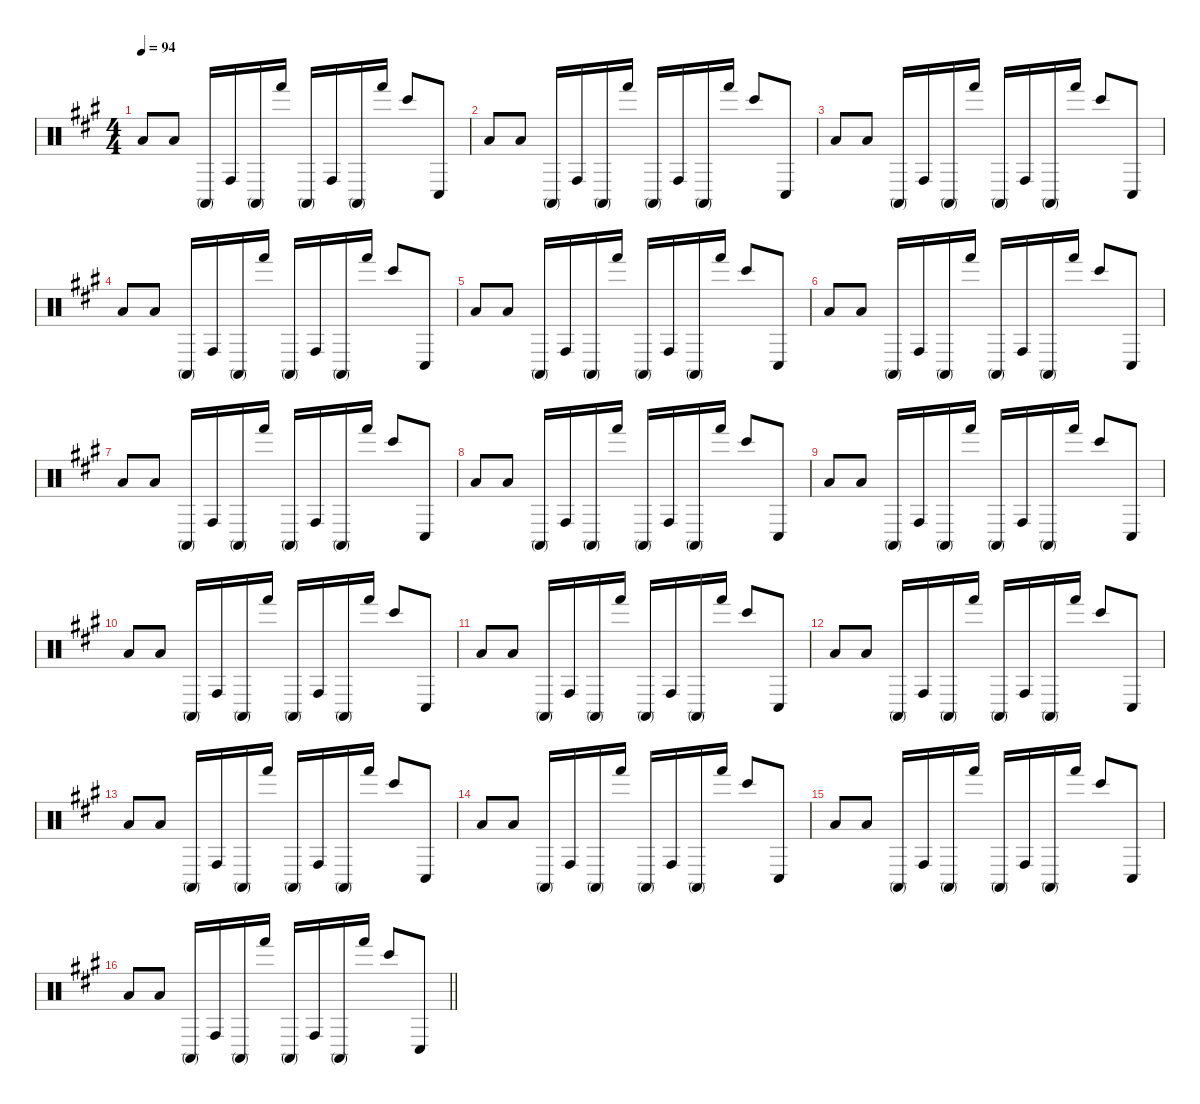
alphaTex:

\defaultSystemsLayout 4
\hideDynamics
\bracketExtendMode nobrackets
\singleTrackTrackNamePolicy hidden
\multiTrackTrackNamePolicy hidden
\firstSystemTrackNameMode fullname
\firstSystemTrackNameOrientation horizontal
\otherSystemsTrackNameOrientation horizontal
\track ("Bongos" "drm.") {defaultSystemsLayout 4 instrument percussion}
\staff {score}
\articulation defaults
\ts (4 4)
\tempo 94
\clef neutral
\ks a "Low Floor Tom (hit)"{acc forcenatural}.8{dy f beam Up} "Low Floor Tom (hit)"{acc forcenatural}.8{beam Up} "Conga high (mute)"{acc forcenatural}.16{beam Up} "Conga high (hit)"{acc forcenatural}.16{beam Up} "Conga high (mute)"{acc forcenatural}.16{beam Up} "Hand (hit)"{acc forcenatural}.16{beam Up} "Conga high (mute)"{acc forcenatural}.16{beam Up} "Conga high (hit)"{acc forcenatural}.16{beam Up} "Conga high (mute)"{acc forcenatural}.16{beam Up} "Hand (hit)"{acc forcenatural}.16{beam Up} "Bongo High (hit)"{acc forcenatural}.8{beam Up} "Conga low (hit)"{acc forcenatural}.8{beam Up}
|
"Low Floor Tom (hit)"{acc forcenatural}.8{beam Up} "Low Floor Tom (hit)"{acc forcenatural}.8{beam Up} "Conga high (mute)"{acc forcenatural}.16{beam Up} "Conga high (hit)"{acc forcenatural}.16{beam Up} "Conga high (mute)"{acc forcenatural}.16{beam Up} "Hand (hit)"{acc forcenatural}.16{beam Up} "Conga high (mute)"{acc forcenatural}.16{beam Up} "Conga high (hit)"{acc forcenatural}.16{beam Up} "Conga high (mute)"{acc forcenatural}.16{beam Up} "Hand (hit)"{acc forcenatural}.16{beam Up} "Bongo High (hit)"{acc forcenatural}.8{beam Up} "Conga low (hit)"{acc forcenatural}.8{beam Up} |
"Low Floor Tom (hit)"{acc forcenatural}.8{beam Up} "Low Floor Tom (hit)"{acc forcenatural}.8{beam Up} "Conga high (mute)"{acc forcenatural}.16{beam Up} "Conga high (hit)"{acc forcenatural}.16{beam Up} "Conga high (mute)"{acc forcenatural}.16{beam Up} "Hand (hit)"{acc forcenatural}.16{beam Up} "Conga high (mute)"{acc forcenatural}.16{beam Up} "Conga high (hit)"{acc forcenatural}.16{beam Up} "Conga high (mute)"{acc forcenatural}.16{beam Up} "Hand (hit)"{acc forcenatural}.16{beam Up} "Bongo High (hit)"{acc forcenatural}.8{beam Up} "Conga low (hit)"{acc forcenatural}.8{beam Up} |
"Low Floor Tom (hit)"{acc forcenatural}.8{beam Up} "Low Floor Tom (hit)"{acc forcenatural}.8{beam Up} "Conga high (mute)"{acc forcenatural}.16{beam Up} "Conga high (hit)"{acc forcenatural}.16{beam Up} "Conga high (mute)"{acc forcenatural}.16{beam Up} "Hand (hit)"{acc forcenatural}.16{beam Up} "Conga high (mute)"{acc forcenatural}.16{beam Up} "Conga high (hit)"{acc forcenatural}.16{beam Up} "Conga high (mute)"{acc forcenatural}.16{beam Up} "Hand (hit)"{acc forcenatural}.16{beam Up} "Bongo High (hit)"{acc forcenatural}.8{beam Up} "Conga low (hit)"{acc forcenatural}.8{beam Up} |
"Low Floor Tom (hit)"{acc forcenatural}.8{beam Up} "Low Floor Tom (hit)"{acc forcenatural}.8{beam Up} "Conga high (mute)"{acc forcenatural}.16{beam Up} "Conga high (hit)"{acc forcenatural}.16{beam Up} "Conga high (mute)"{acc forcenatural}.16{beam Up} "Hand (hit)"{acc forcenatural}.16{beam Up} "Conga high (mute)"{acc forcenatural}.16{beam Up} "Conga high (hit)"{acc forcenatural}.16{beam Up} "Conga high (mute)"{acc forcenatural}.16{beam Up} "Hand (hit)"{acc forcenatural}.16{beam Up} "Bongo High (hit)"{acc forcenatural}.8{beam Up} "Conga low (hit)"{acc forcenatural}.8{beam Up} |
"Low Floor Tom (hit)"{acc forcenatural}.8{beam Up} "Low Floor Tom (hit)"{acc forcenatural}.8{beam Up} "Conga high (mute)"{acc forcenatural}.16{beam Up} "Conga high (hit)"{acc forcenatural}.16{beam Up} "Conga high (mute)"{acc forcenatural}.16{beam Up} "Hand (hit)"{acc forcenatural}.16{beam Up} "Conga high (mute)"{acc forcenatural}.16{beam Up} "Conga high (hit)"{acc forcenatural}.16{beam Up} "Conga high (mute)"{acc forcenatural}.16{beam Up} "Hand (hit)"{acc forcenatural}.16{beam Up} "Bongo High (hit)"{acc forcenatural}.8{beam Up} "Conga low (hit)"{acc forcenatural}.8{beam Up} |
"Low Floor Tom (hit)"{acc forcenatural}.8{beam Up} "Low Floor Tom (hit)"{acc forcenatural}.8{beam Up} "Conga high (mute)"{acc forcenatural}.16{beam Up} "Conga high (hit)"{acc forcenatural}.16{beam Up} "Conga high (mute)"{acc forcenatural}.16{beam Up} "Hand (hit)"{acc forcenatural}.16{beam Up} "Conga high (mute)"{acc forcenatural}.16{beam Up} "Conga high (hit)"{acc forcenatural}.16{beam Up} "Conga high (mute)"{acc forcenatural}.16{beam Up} "Hand (hit)"{acc forcenatural}.16{beam Up} "Bongo High (hit)"{acc forcenatural}.8{beam Up} "Conga low (hit)"{acc forcenatural}.8{beam Up} |
"Low Floor Tom (hit)"{acc forcenatural}.8{beam Up} "Low Floor Tom (hit)"{acc forcenatural}.8{beam Up} "Conga high (mute)"{acc forcenatural}.16{beam Up} "Conga high (hit)"{acc forcenatural}.16{beam Up} "Conga high (mute)"{acc forcenatural}.16{beam Up} "Hand (hit)"{acc forcenatural}.16{beam Up} "Conga high (mute)"{acc forcenatural}.16{beam Up} "Conga high (hit)"{acc forcenatural}.16{beam Up} "Conga high (mute)"{acc forcenatural}.16{beam Up} "Hand (hit)"{acc forcenatural}.16{beam Up} "Bongo High (hit)"{acc forcenatural}.8{beam Up} "Conga low (hit)"{acc forcenatural}.8{beam Up} |
"Low Floor Tom (hit)"{acc forcenatural}.8{beam Up} "Low Floor Tom (hit)"{acc forcenatural}.8{beam Up} "Conga high (mute)"{acc forcenatural}.16{beam Up} "Conga high (hit)"{acc forcenatural}.16{beam Up} "Conga high (mute)"{acc forcenatural}.16{beam Up} "Hand (hit)"{acc forcenatural}.16{beam Up} "Conga high (mute)"{acc forcenatural}.16{beam Up} "Conga high (hit)"{acc forcenatural}.16{beam Up} "Conga high (mute)"{acc forcenatural}.16{beam Up} "Hand (hit)"{acc forcenatural}.16{beam Up} "Bongo High (hit)"{acc forcenatural}.8{beam Up} "Conga low (hit)"{acc forcenatural}.8{beam Up} |
"Low Floor Tom (hit)"{acc forcenatural}.8{beam Up} "Low Floor Tom (hit)"{acc forcenatural}.8{beam Up} "Conga high (mute)"{acc forcenatural}.16{beam Up} "Conga high (hit)"{acc forcenatural}.16{beam Up} "Conga high (mute)"{acc forcenatural}.16{beam Up} "Hand (hit)"{acc forcenatural}.16{beam Up} "Conga high (mute)"{acc forcenatural}.16{beam Up} "Conga high (hit)"{acc forcenatural}.16{beam Up} "Conga high (mute)"{acc forcenatural}.16{beam Up} "Hand (hit)"{acc forcenatural}.16{beam Up} "Bongo High (hit)"{acc forcenatural}.8{beam Up} "Conga low (hit)"{acc forcenatural}.8{beam Up} |
"Low Floor Tom (hit)"{acc forcenatural}.8{beam Up} "Low Floor Tom (hit)"{acc forcenatural}.8{beam Up} "Conga high (mute)"{acc forcenatural}.16{beam Up} "Conga high (hit)"{acc forcenatural}.16{beam Up} "Conga high (mute)"{acc forcenatural}.16{beam Up} "Hand (hit)"{acc forcenatural}.16{beam Up} "Conga high (mute)"{acc forcenatural}.16{beam Up} "Conga high (hit)"{acc forcenatural}.16{beam Up} "Conga high (mute)"{acc forcenatural}.16{beam Up} "Hand (hit)"{acc forcenatural}.16{beam Up} "Bongo High (hit)"{acc forcenatural}.8{beam Up} "Conga low (hit)"{acc forcenatural}.8{beam Up} |
"Low Floor Tom (hit)"{acc forcenatural}.8{beam Up} "Low Floor Tom (hit)"{acc forcenatural}.8{beam Up} "Conga high (mute)"{acc forcenatural}.16{beam Up} "Conga high (hit)"{acc forcenatural}.16{beam Up} "Conga high (mute)"{acc forcenatural}.16{beam Up} "Hand (hit)"{acc forcenatural}.16{beam Up} "Conga high (mute)"{acc forcenatural}.16{beam Up} "Conga high (hit)"{acc forcenatural}.16{beam Up} "Conga high (mute)"{acc forcenatural}.16{beam Up} "Hand (hit)"{acc forcenatural}.16{beam Up} "Bongo High (hit)"{acc forcenatural}.8{beam Up} "Conga low (hit)"{acc forcenatural}.8{beam Up} |
"Low Floor Tom (hit)"{acc forcenatural}.8{beam Up} "Low Floor Tom (hit)"{acc forcenatural}.8{beam Up} "Conga high (mute)"{acc forcenatural}.16{beam Up} "Conga high (hit)"{acc forcenatural}.16{beam Up} "Conga high (mute)"{acc forcenatural}.16{beam Up} "Hand (hit)"{acc forcenatural}.16{beam Up} "Conga high (mute)"{acc forcenatural}.16{beam Up} "Conga high (hit)"{acc forcenatural}.16{beam Up} "Conga high (mute)"{acc forcenatural}.16{beam Up} "Hand (hit)"{acc forcenatural}.16{beam Up} "Bongo High (hit)"{acc forcenatural}.8{beam Up} "Conga low (hit)"{acc forcenatural}.8{beam Up} |
"Low Floor Tom (hit)"{acc forcenatural}.8{beam Up} "Low Floor Tom (hit)"{acc forcenatural}.8{beam Up} "Conga high (mute)"{acc forcenatural}.16{beam Up} "Conga high (hit)"{acc forcenatural}.16{beam Up} "Conga high (mute)"{acc forcenatural}.16{beam Up} "Hand (hit)"{acc forcenatural}.16{beam Up} "Conga high (mute)"{acc forcenatural}.16{beam Up} "Conga high (hit)"{acc forcenatural}.16{beam Up} "Conga high (mute)"{acc forcenatural}.16{beam Up} "Hand (hit)"{acc forcenatural}.16{beam Up} "Bongo High (hit)"{acc forcenatural}.8{beam Up} "Conga low (hit)"{acc forcenatural}.8{beam Up} |
"Low Floor Tom (hit)"{acc forcenatural}.8{beam Up} "Low Floor Tom (hit)"{acc forcenatural}.8{beam Up} "Conga high (mute)"{acc forcenatural}.16{beam Up} "Conga high (hit)"{acc forcenatural}.16{beam Up} "Conga high (mute)"{acc forcenatural}.16{beam Up} "Hand (hit)"{acc forcenatural}.16{beam Up} "Conga high (mute)"{acc forcenatural}.16{beam Up} "Conga high (hit)"{acc forcenatural}.16{beam Up} "Conga high (mute)"{acc forcenatural}.16{beam Up} "Hand (hit)"{acc forcenatural}.16{beam Up} "Bongo High (hit)"{acc forcenatural}.8{beam Up} "Conga low (hit)"{acc forcenatural}.8{beam Up} |
\barLineRight lightlight "Low Floor Tom (hit)"{acc forcenatural}.8{beam Up} "Low Floor Tom (hit)"{acc forcenatural}.8{beam Up} "Conga high (mute)"{acc forcenatural}.16{beam Up} "Conga high (hit)"{acc forcenatural}.16{beam Up} "Conga high (mute)"{acc forcenatural}.16{beam Up} "Hand (hit)"{acc forcenatural}.16{beam Up} "Conga high (mute)"{acc forcenatural}.16{beam Up} "Conga high (hit)"{acc forcenatural}.16{beam Up} "Conga high (mute)"{acc forcenatural}.16{beam Up} "Hand (hit)"{acc forcenatural}.16{beam Up} "Bongo High (hit)"{acc forcenatural}.8{beam Up} "Conga low (hit)"{acc forcenatural}.8{beam Up}
